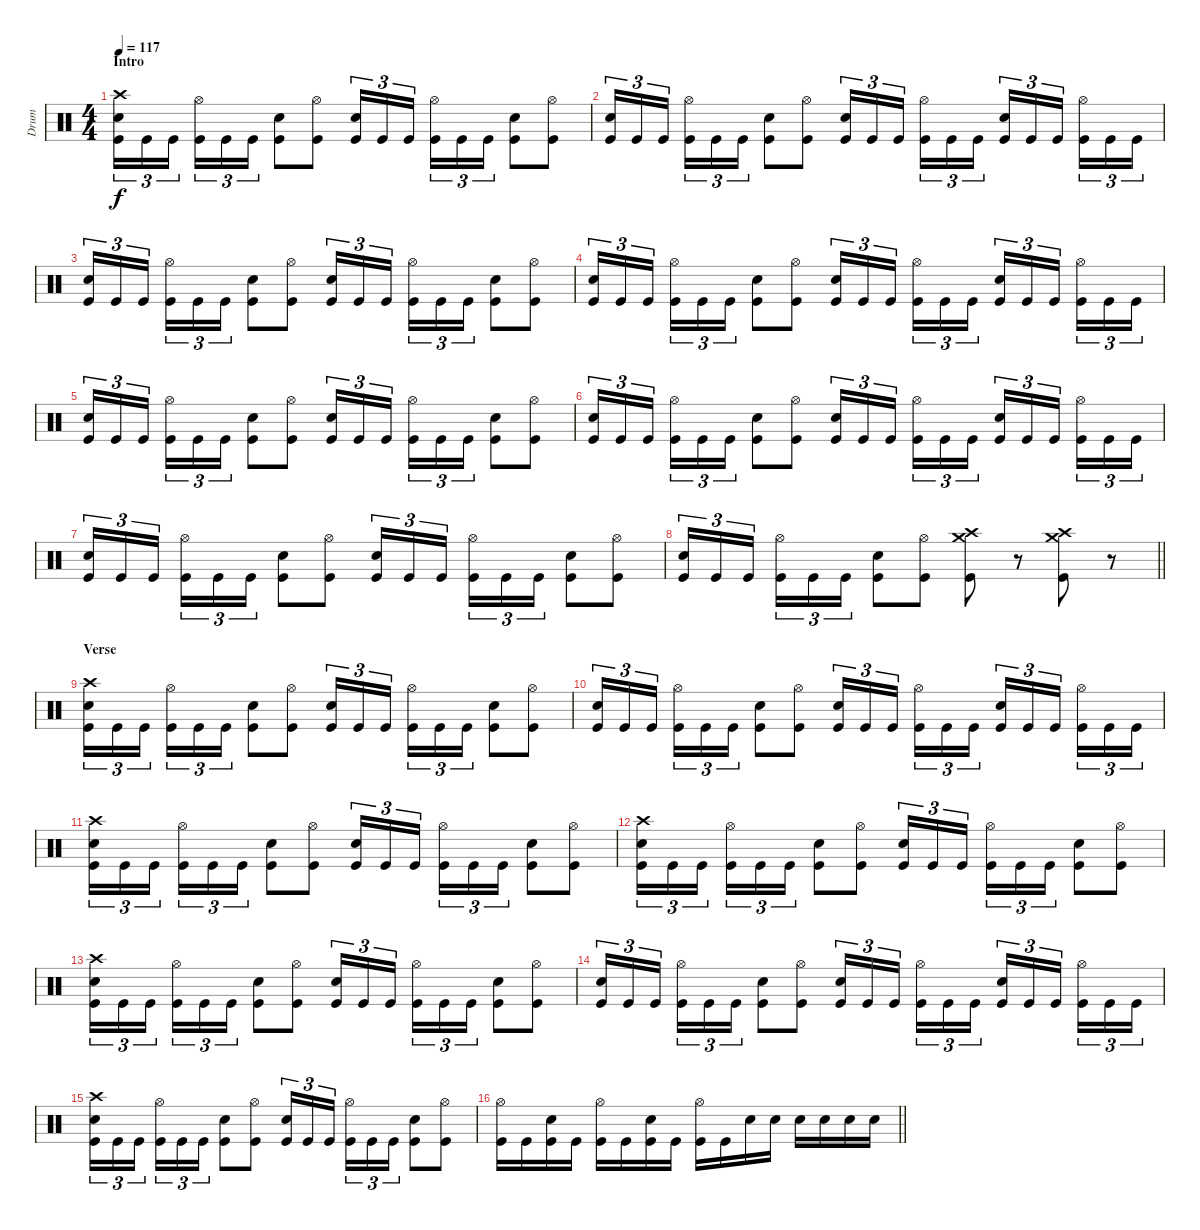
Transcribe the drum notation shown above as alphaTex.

\track ("Drum" "Drum") {instrument percussion}
\staff {score}
\articulation defaults
\ts (4 4)
\section ("" "Intro")
\tempo 117
\clef neutral
\ks c
("Crash high (hit)" "Kick (hit)" "Snare (hit) 2").16{tu (3 2) dy f} "Kick (hit)".16{tu (3 2)} "Kick (hit)".16{tu (3 2) beam splitsecondary} ("Kick (hit)" "Hi-Hat (open)").16{tu (3 2)} "Kick (hit)".16{tu (3 2)} "Kick (hit)".16{tu (3 2)} ("Kick (hit)" "Snare (hit) 2").8 ("Kick (hit)" "Hi-Hat (open)").8 ("Kick (hit)" "Snare (hit) 2").16{tu (3 2)} "Kick (hit)".16{tu (3 2)} "Kick (hit)".16{tu (3 2) beam splitsecondary} ("Kick (hit)" "Hi-Hat (open)").16{tu (3 2)} "Kick (hit)".16{tu (3 2)} "Kick (hit)".16{tu (3 2)} ("Kick (hit)" "Snare (hit) 2").8 ("Kick (hit)" "Hi-Hat (open)").8 |
("Kick (hit)" "Snare (hit) 2").16{tu (3 2)} "Kick (hit)".16{tu (3 2)} "Kick (hit)".16{tu (3 2) beam splitsecondary} ("Kick (hit)" "Hi-Hat (open)").16{tu (3 2)} "Kick (hit)".16{tu (3 2)} "Kick (hit)".16{tu (3 2)} ("Kick (hit)" "Snare (hit) 2").8 ("Kick (hit)" "Hi-Hat (open)").8 ("Kick (hit)" "Snare (hit) 2").16{tu (3 2)} "Kick (hit)".16{tu (3 2)} "Kick (hit)".16{tu (3 2) beam splitsecondary} ("Kick (hit)" "Hi-Hat (open)").16{tu (3 2)} "Kick (hit)".16{tu (3 2)} "Kick (hit)".16{tu (3 2)} ("Kick (hit)" "Snare (hit) 2").16{tu (3 2)} "Kick (hit)".16{tu (3 2)} "Kick (hit)".16{tu (3 2) beam splitsecondary} ("Kick (hit)" "Hi-Hat (open)").16{tu (3 2)} "Kick (hit)".16{tu (3 2)} "Kick (hit)".16{tu (3 2)} |
("Kick (hit)" "Snare (hit) 2").16{tu (3 2)} "Kick (hit)".16{tu (3 2)} "Kick (hit)".16{tu (3 2) beam splitsecondary} ("Kick (hit)" "Hi-Hat (open)").16{tu (3 2)} "Kick (hit)".16{tu (3 2)} "Kick (hit)".16{tu (3 2)} ("Kick (hit)" "Snare (hit) 2").8 ("Kick (hit)" "Hi-Hat (open)").8 ("Kick (hit)" "Snare (hit) 2").16{tu (3 2)} "Kick (hit)".16{tu (3 2)} "Kick (hit)".16{tu (3 2) beam splitsecondary} ("Kick (hit)" "Hi-Hat (open)").16{tu (3 2)} "Kick (hit)".16{tu (3 2)} "Kick (hit)".16{tu (3 2)} ("Kick (hit)" "Snare (hit) 2").8 ("Kick (hit)" "Hi-Hat (open)").8 |
("Kick (hit)" "Snare (hit) 2").16{tu (3 2)} "Kick (hit)".16{tu (3 2)} "Kick (hit)".16{tu (3 2) beam splitsecondary} ("Kick (hit)" "Hi-Hat (open)").16{tu (3 2)} "Kick (hit)".16{tu (3 2)} "Kick (hit)".16{tu (3 2)} ("Kick (hit)" "Snare (hit) 2").8 ("Kick (hit)" "Hi-Hat (open)").8 ("Kick (hit)" "Snare (hit) 2").16{tu (3 2)} "Kick (hit)".16{tu (3 2)} "Kick (hit)".16{tu (3 2) beam splitsecondary} ("Kick (hit)" "Hi-Hat (open)").16{tu (3 2)} "Kick (hit)".16{tu (3 2)} "Kick (hit)".16{tu (3 2)} ("Kick (hit)" "Snare (hit) 2").16{tu (3 2)} "Kick (hit)".16{tu (3 2)} "Kick (hit)".16{tu (3 2) beam splitsecondary} ("Kick (hit)" "Hi-Hat (open)").16{tu (3 2)} "Kick (hit)".16{tu (3 2)} "Kick (hit)".16{tu (3 2)} |
("Kick (hit)" "Snare (hit) 2").16{tu (3 2)} "Kick (hit)".16{tu (3 2)} "Kick (hit)".16{tu (3 2) beam splitsecondary} ("Kick (hit)" "Hi-Hat (open)").16{tu (3 2)} "Kick (hit)".16{tu (3 2)} "Kick (hit)".16{tu (3 2)} ("Kick (hit)" "Snare (hit) 2").8 ("Kick (hit)" "Hi-Hat (open)").8 ("Kick (hit)" "Snare (hit) 2").16{tu (3 2)} "Kick (hit)".16{tu (3 2)} "Kick (hit)".16{tu (3 2) beam splitsecondary} ("Kick (hit)" "Hi-Hat (open)").16{tu (3 2)} "Kick (hit)".16{tu (3 2)} "Kick (hit)".16{tu (3 2)} ("Kick (hit)" "Snare (hit) 2").8 ("Kick (hit)" "Hi-Hat (open)").8 |
("Kick (hit)" "Snare (hit) 2").16{tu (3 2)} "Kick (hit)".16{tu (3 2)} "Kick (hit)".16{tu (3 2) beam splitsecondary} ("Kick (hit)" "Hi-Hat (open)").16{tu (3 2)} "Kick (hit)".16{tu (3 2)} "Kick (hit)".16{tu (3 2)} ("Kick (hit)" "Snare (hit) 2").8 ("Kick (hit)" "Hi-Hat (open)").8 ("Kick (hit)" "Snare (hit) 2").16{tu (3 2)} "Kick (hit)".16{tu (3 2)} "Kick (hit)".16{tu (3 2) beam splitsecondary} ("Kick (hit)" "Hi-Hat (open)").16{tu (3 2)} "Kick (hit)".16{tu (3 2)} "Kick (hit)".16{tu (3 2)} ("Kick (hit)" "Snare (hit) 2").16{tu (3 2)} "Kick (hit)".16{tu (3 2)} "Kick (hit)".16{tu (3 2) beam splitsecondary} ("Kick (hit)" "Hi-Hat (open)").16{tu (3 2)} "Kick (hit)".16{tu (3 2)} "Kick (hit)".16{tu (3 2)} |
("Kick (hit)" "Snare (hit) 2").16{tu (3 2)} "Kick (hit)".16{tu (3 2)} "Kick (hit)".16{tu (3 2) beam splitsecondary} ("Kick (hit)" "Hi-Hat (open)").16{tu (3 2)} "Kick (hit)".16{tu (3 2)} "Kick (hit)".16{tu (3 2)} ("Kick (hit)" "Snare (hit) 2").8 ("Kick (hit)" "Hi-Hat (open)").8 ("Kick (hit)" "Snare (hit) 2").16{tu (3 2)} "Kick (hit)".16{tu (3 2)} "Kick (hit)".16{tu (3 2) beam splitsecondary} ("Kick (hit)" "Hi-Hat (open)").16{tu (3 2)} "Kick (hit)".16{tu (3 2)} "Kick (hit)".16{tu (3 2)} ("Kick (hit)" "Snare (hit) 2").8 ("Kick (hit)" "Hi-Hat (open)").8 |
\barLineRight lightlight
("Kick (hit)" "Snare (hit) 2").16{tu (3 2)} "Kick (hit)".16{tu (3 2)} "Kick (hit)".16{tu (3 2) beam splitsecondary} ("Kick (hit)" "Hi-Hat (open)").16{tu (3 2)} "Kick (hit)".16{tu (3 2)} "Kick (hit)".16{tu (3 2)} ("Kick (hit)" "Snare (hit) 2").8 ("Kick (hit)" "Hi-Hat (open)").8 ("Kick (hit)" "Crash high (hit)" "Crash medium (hit)").8 r.8 ("Kick (hit)" "Crash high (hit)" "Crash medium (hit)").8 r.8 |
\section ("" "Verse")
("Crash high (hit)" "Kick (hit)" "Snare (hit) 2").16{tu (3 2)} "Kick (hit)".16{tu (3 2)} "Kick (hit)".16{tu (3 2) beam splitsecondary} ("Kick (hit)" "Hi-Hat (open)").16{tu (3 2)} "Kick (hit)".16{tu (3 2)} "Kick (hit)".16{tu (3 2)} ("Kick (hit)" "Snare (hit) 2").8 ("Kick (hit)" "Hi-Hat (open)").8 ("Kick (hit)" "Snare (hit) 2").16{tu (3 2)} "Kick (hit)".16{tu (3 2)} "Kick (hit)".16{tu (3 2) beam splitsecondary} ("Kick (hit)" "Hi-Hat (open)").16{tu (3 2)} "Kick (hit)".16{tu (3 2)} "Kick (hit)".16{tu (3 2)} ("Kick (hit)" "Snare (hit) 2").8 ("Kick (hit)" "Hi-Hat (open)").8 |
("Kick (hit)" "Snare (hit) 2").16{tu (3 2)} "Kick (hit)".16{tu (3 2)} "Kick (hit)".16{tu (3 2) beam splitsecondary} ("Kick (hit)" "Hi-Hat (open)").16{tu (3 2)} "Kick (hit)".16{tu (3 2)} "Kick (hit)".16{tu (3 2)} ("Kick (hit)" "Snare (hit) 2").8 ("Kick (hit)" "Hi-Hat (open)").8 ("Kick (hit)" "Snare (hit) 2").16{tu (3 2)} "Kick (hit)".16{tu (3 2)} "Kick (hit)".16{tu (3 2) beam splitsecondary} ("Kick (hit)" "Hi-Hat (open)").16{tu (3 2)} "Kick (hit)".16{tu (3 2)} "Kick (hit)".16{tu (3 2)} ("Kick (hit)" "Snare (hit) 2").16{tu (3 2)} "Kick (hit)".16{tu (3 2)} "Kick (hit)".16{tu (3 2) beam splitsecondary} ("Kick (hit)" "Hi-Hat (open)").16{tu (3 2)} "Kick (hit)".16{tu (3 2)} "Kick (hit)".16{tu (3 2)} |
("Crash high (hit)" "Kick (hit)" "Snare (hit) 2").16{tu (3 2)} "Kick (hit)".16{tu (3 2)} "Kick (hit)".16{tu (3 2) beam splitsecondary} ("Kick (hit)" "Hi-Hat (open)").16{tu (3 2)} "Kick (hit)".16{tu (3 2)} "Kick (hit)".16{tu (3 2)} ("Kick (hit)" "Snare (hit) 2").8 ("Kick (hit)" "Hi-Hat (open)").8 ("Kick (hit)" "Snare (hit) 2").16{tu (3 2)} "Kick (hit)".16{tu (3 2)} "Kick (hit)".16{tu (3 2) beam splitsecondary} ("Kick (hit)" "Hi-Hat (open)").16{tu (3 2)} "Kick (hit)".16{tu (3 2)} "Kick (hit)".16{tu (3 2)} ("Kick (hit)" "Snare (hit) 2").8 ("Kick (hit)" "Hi-Hat (open)").8 |
("Crash high (hit)" "Kick (hit)" "Snare (hit) 2").16{tu (3 2)} "Kick (hit)".16{tu (3 2)} "Kick (hit)".16{tu (3 2) beam splitsecondary} ("Kick (hit)" "Hi-Hat (open)").16{tu (3 2)} "Kick (hit)".16{tu (3 2)} "Kick (hit)".16{tu (3 2)} ("Kick (hit)" "Snare (hit) 2").8 ("Kick (hit)" "Hi-Hat (open)").8 ("Kick (hit)" "Snare (hit) 2").16{tu (3 2)} "Kick (hit)".16{tu (3 2)} "Kick (hit)".16{tu (3 2) beam splitsecondary} ("Kick (hit)" "Hi-Hat (open)").16{tu (3 2)} "Kick (hit)".16{tu (3 2)} "Kick (hit)".16{tu (3 2)} ("Kick (hit)" "Snare (hit) 2").8 ("Kick (hit)" "Hi-Hat (open)").8 |
("Crash high (hit)" "Kick (hit)" "Snare (hit) 2").16{tu (3 2)} "Kick (hit)".16{tu (3 2)} "Kick (hit)".16{tu (3 2) beam splitsecondary} ("Kick (hit)" "Hi-Hat (open)").16{tu (3 2)} "Kick (hit)".16{tu (3 2)} "Kick (hit)".16{tu (3 2)} ("Kick (hit)" "Snare (hit) 2").8 ("Kick (hit)" "Hi-Hat (open)").8 ("Kick (hit)" "Snare (hit) 2").16{tu (3 2)} "Kick (hit)".16{tu (3 2)} "Kick (hit)".16{tu (3 2) beam splitsecondary} ("Kick (hit)" "Hi-Hat (open)").16{tu (3 2)} "Kick (hit)".16{tu (3 2)} "Kick (hit)".16{tu (3 2)} ("Kick (hit)" "Snare (hit) 2").8 ("Kick (hit)" "Hi-Hat (open)").8 |
("Kick (hit)" "Snare (hit) 2").16{tu (3 2)} "Kick (hit)".16{tu (3 2)} "Kick (hit)".16{tu (3 2) beam splitsecondary} ("Kick (hit)" "Hi-Hat (open)").16{tu (3 2)} "Kick (hit)".16{tu (3 2)} "Kick (hit)".16{tu (3 2)} ("Kick (hit)" "Snare (hit) 2").8 ("Kick (hit)" "Hi-Hat (open)").8 ("Kick (hit)" "Snare (hit) 2").16{tu (3 2)} "Kick (hit)".16{tu (3 2)} "Kick (hit)".16{tu (3 2) beam splitsecondary} ("Kick (hit)" "Hi-Hat (open)").16{tu (3 2)} "Kick (hit)".16{tu (3 2)} "Kick (hit)".16{tu (3 2)} ("Kick (hit)" "Snare (hit) 2").16{tu (3 2)} "Kick (hit)".16{tu (3 2)} "Kick (hit)".16{tu (3 2) beam splitsecondary} ("Kick (hit)" "Hi-Hat (open)").16{tu (3 2)} "Kick (hit)".16{tu (3 2)} "Kick (hit)".16{tu (3 2)} |
("Crash high (hit)" "Kick (hit)" "Snare (hit) 2").16{tu (3 2)} "Kick (hit)".16{tu (3 2)} "Kick (hit)".16{tu (3 2) beam splitsecondary} ("Kick (hit)" "Hi-Hat (open)").16{tu (3 2)} "Kick (hit)".16{tu (3 2)} "Kick (hit)".16{tu (3 2)} ("Kick (hit)" "Snare (hit) 2").8 ("Kick (hit)" "Hi-Hat (open)").8 ("Kick (hit)" "Snare (hit) 2").16{tu (3 2)} "Kick (hit)".16{tu (3 2)} "Kick (hit)".16{tu (3 2) beam splitsecondary} ("Kick (hit)" "Hi-Hat (open)").16{tu (3 2)} "Kick (hit)".16{tu (3 2)} "Kick (hit)".16{tu (3 2)} ("Kick (hit)" "Snare (hit) 2").8 ("Kick (hit)" "Hi-Hat (open)").8 |
\barLineRight lightlight
("Kick (hit)" "Hi-Hat (open)").16 "Kick (hit)".16 ("Kick (hit)" "Snare (hit) 2").16 "Kick (hit)".16 ("Kick (hit)" "Hi-Hat (open)").16 "Kick (hit)".16 ("Kick (hit)" "Snare (hit) 2").16 "Kick (hit)".16 ("Kick (hit)" "Hi-Hat (open)").16 "Kick (hit)".16 "Snare (hit) 2".16 "Snare (hit) 2".16 "Snare (hit) 2".16 "Snare (hit) 2".16 "Snare (hit) 2".16 "Snare (hit) 2".16
